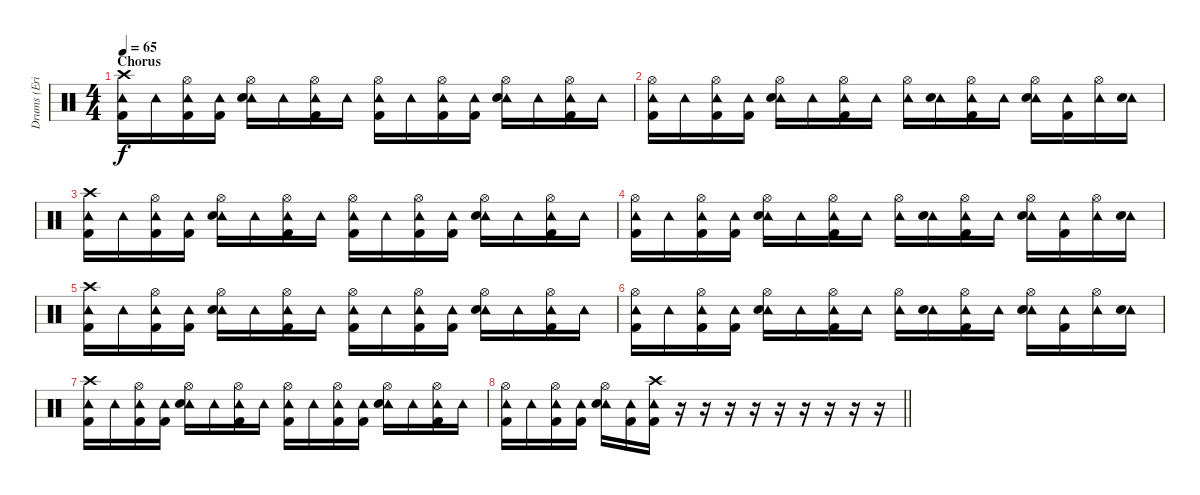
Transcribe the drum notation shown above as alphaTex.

\track ("Drums (Eric Kretz)" "Drums (Eri") {instrument percussion}
\staff {score}
\articulation defaults
\ts (4 4)
\section ("" "Chorus")
\tempo 65
\clef neutral
\ks c
("Crash high (hit)" "Tambourine (hit)" "Kick (hit) 2").16{dy f} "Tambourine (hit)".16 ("Hi-Hat (open)" "Tambourine (hit)" "Kick (hit) 2").16 ("Tambourine (hit)" "Kick (hit) 2").16 ("Hi-Hat (open)" "Tambourine (hit)" "Electric Snare (hit)").16 "Tambourine (hit)".16 ("Hi-Hat (open)" "Tambourine (hit)" "Kick (hit) 2").16 "Tambourine (hit)".16 ("Hi-Hat (open)" "Tambourine (hit)" "Kick (hit) 2").16 "Tambourine (hit)".16 ("Hi-Hat (open)" "Tambourine (hit)" "Kick (hit) 2").16 ("Tambourine (hit)" "Kick (hit) 2").16 ("Hi-Hat (open)" "Tambourine (hit)" "Electric Snare (hit)").16 "Tambourine (hit)".16 ("Hi-Hat (open)" "Tambourine (hit)" "Kick (hit) 2").16 "Tambourine (hit)".16 |
("Hi-Hat (open)" "Tambourine (hit)" "Kick (hit) 2").16 "Tambourine (hit)".16 ("Hi-Hat (open)" "Tambourine (hit)" "Kick (hit) 2").16 ("Tambourine (hit)" "Kick (hit) 2").16 ("Hi-Hat (open)" "Tambourine (hit)" "Electric Snare (hit)").16 "Tambourine (hit)".16 ("Hi-Hat (open)" "Tambourine (hit)" "Kick (hit) 2").16 "Tambourine (hit)".16 ("Hi-Hat (open)" "Tambourine (hit)").16 ("Tambourine (hit)" "Electric Snare (hit)").16 ("Hi-Hat (open)" "Tambourine (hit)" "Kick (hit) 2").16 "Tambourine (hit)".16 ("Hi-Hat (open)" "Tambourine (hit)" "Electric Snare (hit)").16 ("Tambourine (hit)" "Kick (hit) 2").16 ("Hi-Hat (open)" "Tambourine (hit)").16 ("Tambourine (hit)" "Electric Snare (hit)").16 |
("Crash high (hit)" "Tambourine (hit)" "Kick (hit) 2").16 "Tambourine (hit)".16 ("Hi-Hat (open)" "Tambourine (hit)" "Kick (hit) 2").16 ("Tambourine (hit)" "Kick (hit) 2").16 ("Hi-Hat (open)" "Tambourine (hit)" "Electric Snare (hit)").16 "Tambourine (hit)".16 ("Hi-Hat (open)" "Tambourine (hit)" "Kick (hit) 2").16 "Tambourine (hit)".16 ("Hi-Hat (open)" "Tambourine (hit)" "Kick (hit) 2").16 "Tambourine (hit)".16 ("Hi-Hat (open)" "Tambourine (hit)" "Kick (hit) 2").16 ("Tambourine (hit)" "Kick (hit) 2").16 ("Hi-Hat (open)" "Tambourine (hit)" "Electric Snare (hit)").16 "Tambourine (hit)".16 ("Hi-Hat (open)" "Tambourine (hit)" "Kick (hit) 2").16 "Tambourine (hit)".16 |
("Hi-Hat (open)" "Tambourine (hit)" "Kick (hit) 2").16 "Tambourine (hit)".16 ("Hi-Hat (open)" "Tambourine (hit)" "Kick (hit) 2").16 ("Tambourine (hit)" "Kick (hit) 2").16 ("Hi-Hat (open)" "Tambourine (hit)" "Electric Snare (hit)").16 "Tambourine (hit)".16 ("Hi-Hat (open)" "Tambourine (hit)" "Kick (hit) 2").16 "Tambourine (hit)".16 ("Hi-Hat (open)" "Tambourine (hit)").16 ("Tambourine (hit)" "Electric Snare (hit)").16 ("Hi-Hat (open)" "Tambourine (hit)" "Kick (hit) 2").16 "Tambourine (hit)".16 ("Hi-Hat (open)" "Tambourine (hit)" "Electric Snare (hit)").16 ("Tambourine (hit)" "Kick (hit) 2").16 ("Hi-Hat (open)" "Tambourine (hit)").16 ("Tambourine (hit)" "Electric Snare (hit)").16 |
("Crash high (hit)" "Tambourine (hit)" "Kick (hit) 2").16 "Tambourine (hit)".16 ("Hi-Hat (open)" "Tambourine (hit)" "Kick (hit) 2").16 ("Tambourine (hit)" "Kick (hit) 2").16 ("Hi-Hat (open)" "Tambourine (hit)" "Electric Snare (hit)").16 "Tambourine (hit)".16 ("Hi-Hat (open)" "Tambourine (hit)" "Kick (hit) 2").16 "Tambourine (hit)".16 ("Hi-Hat (open)" "Tambourine (hit)" "Kick (hit) 2").16 "Tambourine (hit)".16 ("Hi-Hat (open)" "Tambourine (hit)" "Kick (hit) 2").16 ("Tambourine (hit)" "Kick (hit) 2").16 ("Hi-Hat (open)" "Tambourine (hit)" "Electric Snare (hit)").16 "Tambourine (hit)".16 ("Hi-Hat (open)" "Tambourine (hit)" "Kick (hit) 2").16 "Tambourine (hit)".16 |
("Hi-Hat (open)" "Tambourine (hit)" "Kick (hit) 2").16 "Tambourine (hit)".16 ("Hi-Hat (open)" "Tambourine (hit)" "Kick (hit) 2").16 ("Tambourine (hit)" "Kick (hit) 2").16 ("Hi-Hat (open)" "Tambourine (hit)" "Electric Snare (hit)").16 "Tambourine (hit)".16 ("Hi-Hat (open)" "Tambourine (hit)" "Kick (hit) 2").16 "Tambourine (hit)".16 ("Hi-Hat (open)" "Tambourine (hit)").16 ("Tambourine (hit)" "Electric Snare (hit)").16 ("Hi-Hat (open)" "Tambourine (hit)" "Kick (hit) 2").16 "Tambourine (hit)".16 ("Hi-Hat (open)" "Tambourine (hit)" "Electric Snare (hit)").16 ("Tambourine (hit)" "Kick (hit) 2").16 ("Hi-Hat (open)" "Tambourine (hit)").16 ("Tambourine (hit)" "Electric Snare (hit)").16 |
("Crash high (hit)" "Tambourine (hit)" "Kick (hit) 2").16 "Tambourine (hit)".16 ("Hi-Hat (open)" "Tambourine (hit)" "Kick (hit) 2").16 ("Tambourine (hit)" "Kick (hit) 2").16 ("Hi-Hat (open)" "Tambourine (hit)" "Electric Snare (hit)").16 "Tambourine (hit)".16 ("Hi-Hat (open)" "Tambourine (hit)" "Kick (hit) 2").16 "Tambourine (hit)".16 ("Hi-Hat (open)" "Tambourine (hit)" "Kick (hit) 2").16 "Tambourine (hit)".16 ("Hi-Hat (open)" "Tambourine (hit)" "Kick (hit) 2").16 ("Tambourine (hit)" "Kick (hit) 2").16 ("Hi-Hat (open)" "Tambourine (hit)" "Electric Snare (hit)").16 "Tambourine (hit)".16 ("Hi-Hat (open)" "Tambourine (hit)" "Kick (hit) 2").16 "Tambourine (hit)".16 |
\barLineRight lightlight
("Hi-Hat (open)" "Tambourine (hit)" "Kick (hit) 2").16 "Tambourine (hit)".16 ("Hi-Hat (open)" "Tambourine (hit)" "Kick (hit) 2").16 ("Tambourine (hit)" "Kick (hit) 2").16 ("Hi-Hat (open)" "Tambourine (hit)" "Electric Snare (hit)").16 ("Tambourine (hit)" "Kick (hit) 2").16 ("Crash high (hit)" "Tambourine (hit)" "Kick (hit) 2").16 r.16 r.16 r.16 r.16 r.16 r.16 r.16 r.16 r.16
